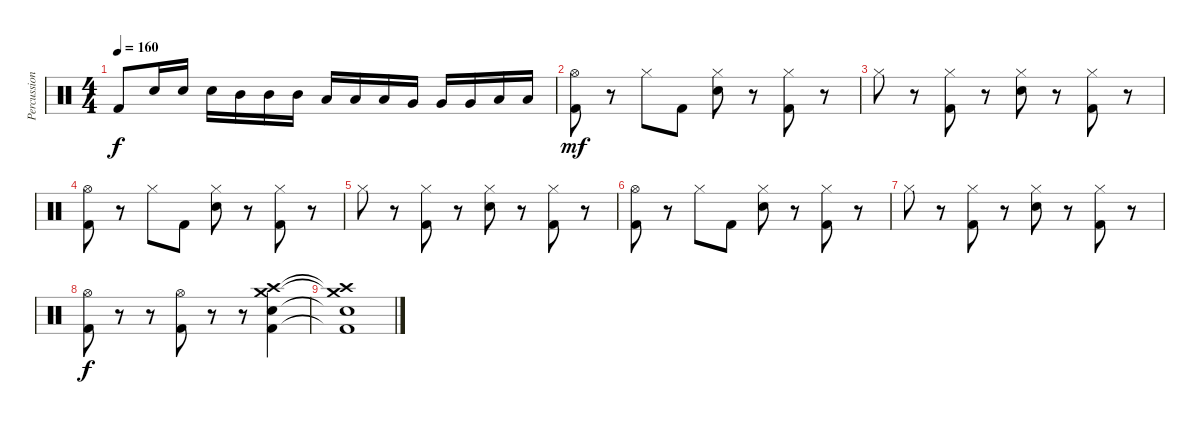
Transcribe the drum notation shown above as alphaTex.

\track ("Percussioni" "Percussion") {instrument percussion}
\staff {score}
\articulation defaults
\ts (4 4)
\tempo 160
\clef neutral
\ks c "Kick (hit) 2".8{dy f} "Snare (hit) 2".16 "Snare (hit) 2".16 "Snare (hit) 2".16 "Mid Tom (hit)".16 "Mid Tom (hit)".16 "Mid Tom (hit)".16 "Low Tom (hit)".16 "Low Tom (hit)".16 "Low Tom (hit)".16 "Very Low Tom (hit)".16 "Very Low Tom (hit)".16 "Very Low Tom (hit)".16 "Low Floor Tom (hit)".16 "Low Floor Tom (hit)".16
|
("Hi-Hat (open)" "Kick (hit) 2").8{dy mf} r.8 "Hi-Hat (closed)".8 "Kick (hit) 2".8 ("Hi-Hat (closed)" "Snare (hit) 2").8 r.8 ("Hi-Hat (closed)" "Kick (hit) 2").8 r.8 |
"Hi-Hat (closed)".8 r.8 ("Hi-Hat (closed)" "Kick (hit) 2").8 r.8 ("Hi-Hat (closed)" "Snare (hit) 2").8 r.8 ("Hi-Hat (closed)" "Kick (hit) 2").8 r.8 |
("Hi-Hat (open)" "Kick (hit) 2").8 r.8 "Hi-Hat (closed)".8 "Kick (hit) 2".8 ("Hi-Hat (closed)" "Snare (hit) 2").8 r.8 ("Hi-Hat (closed)" "Kick (hit) 2").8 r.8 |
"Hi-Hat (closed)".8 r.8 ("Hi-Hat (closed)" "Kick (hit) 2").8 r.8 ("Hi-Hat (closed)" "Snare (hit) 2").8 r.8 ("Hi-Hat (closed)" "Kick (hit) 2").8 r.8 |
("Hi-Hat (open)" "Kick (hit) 2").8 r.8 "Hi-Hat (closed)".8 "Kick (hit) 2".8 ("Hi-Hat (closed)" "Snare (hit) 2").8 r.8 ("Hi-Hat (closed)" "Kick (hit) 2").8 r.8 |
"Hi-Hat (closed)".8 r.8 ("Hi-Hat (closed)" "Kick (hit) 2").8 r.8 ("Hi-Hat (closed)" "Snare (hit) 2").8 r.8 ("Hi-Hat (closed)" "Kick (hit) 2").8 r.8 |
("Hi-Hat (open)" "Kick (hit) 2").8{dy f} r.8 r.8 ("Hi-Hat (open)" "Kick (hit) 2").8 r.8 r.8 ("Crash medium (hit)" "Crash high (hit)" "Snare (hit) 2" "Kick (hit) 2").4 |
("Crash medium (hit)"{t} "Crash high (hit)"{t} "Snare (hit) 2"{t} "Kick (hit) 2"{t}).1
